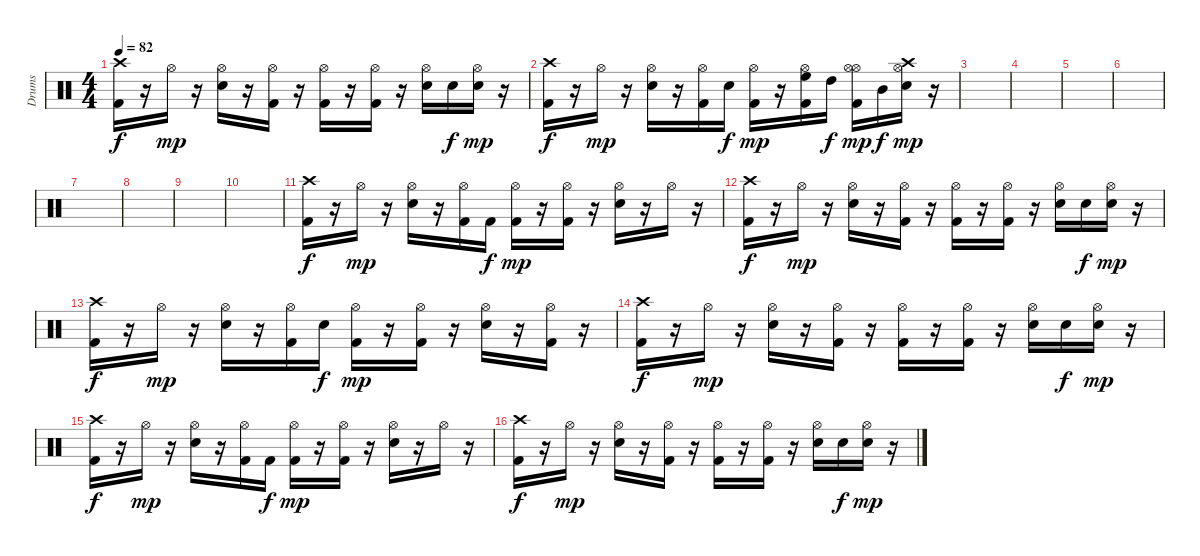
\track ("Drums" "Drums") {instrument percussion}
\staff {score}
\articulation defaults
\ts (4 4)
\tempo 82
\clef neutral
\ks c
("Kick (hit) 2" "Crash high (hit)").16{dy f} r.16 "Hi-Hat (open)".16{dy mp} r.16 ("Snare (hit) 2" "Hi-Hat (open)").16 r.16 ("Kick (hit) 2" "Hi-Hat (open)").16 r.16 ("Kick (hit) 2" "Hi-Hat (open)").16 r.16 ("Kick (hit) 2" "Hi-Hat (open)").16 r.16 ("Snare (hit) 2" "Hi-Hat (open)").16 "Snare (hit) 2".16{dy f} ("Snare (hit) 2" "Hi-Hat (open)").16{dy mp} r.16 |
("Kick (hit) 2" "Crash high (hit)").16{dy f} r.16 "Hi-Hat (open)".16{dy mp} r.16 ("Snare (hit) 2" "Hi-Hat (open)").16 r.16 ("Kick (hit) 2" "Hi-Hat (open)").16 "Snare (hit) 2".16{dy f} ("Kick (hit) 2" "Hi-Hat (open)").16{dy mp} r.16 ("Kick (hit) 2" "High Floor Tom (hit)" "Hi-Hat (open)").16 "High Tom (hit)".16{dy f} ("Kick (hit) 2" "Hi-Hat (open)" "Hi-Hat (open)").16{dy mp} "Mid Tom (hit)".16{dy f} ("Snare (hit) 2" "Crash high (hit)" "Hi-Hat (open)").16{dy mp} r.16 |
|
|
|
|
|
|
|
|
("Kick (hit) 2" "Crash high (hit)").16{dy f} r.16 "Hi-Hat (open)".16{dy mp} r.16 ("Snare (hit) 2" "Hi-Hat (open)").16 r.16 ("Kick (hit) 2" "Hi-Hat (open)").16 "Kick (hit) 2".16{dy f} ("Kick (hit) 2" "Hi-Hat (open)").16{dy mp} r.16 ("Kick (hit) 2" "Hi-Hat (open)").16 r.16 ("Snare (hit) 2" "Hi-Hat (open)").16 r.16 "Hi-Hat (open)".16 r.16 |
("Kick (hit) 2" "Crash high (hit)").16{dy f} r.16 "Hi-Hat (open)".16{dy mp} r.16 ("Snare (hit) 2" "Hi-Hat (open)").16 r.16 ("Kick (hit) 2" "Hi-Hat (open)").16 r.16 ("Kick (hit) 2" "Hi-Hat (open)").16 r.16 ("Kick (hit) 2" "Hi-Hat (open)").16 r.16 ("Snare (hit) 2" "Hi-Hat (open)").16 "Snare (hit) 2".16{dy f} ("Snare (hit) 2" "Hi-Hat (open)").16{dy mp} r.16 |
("Kick (hit) 2" "Crash high (hit)").16{dy f} r.16 "Hi-Hat (open)".16{dy mp} r.16 ("Snare (hit) 2" "Hi-Hat (open)").16 r.16 ("Kick (hit) 2" "Hi-Hat (open)").16 "Snare (hit) 2".16{dy f} ("Kick (hit) 2" "Hi-Hat (open)").16{dy mp} r.16 ("Kick (hit) 2" "Hi-Hat (open)").16 r.16 ("Snare (hit) 2" "Hi-Hat (open)").16 r.16 ("Kick (hit) 2" "Hi-Hat (open)").16 r.16 |
("Kick (hit) 2" "Crash high (hit)").16{dy f} r.16 "Hi-Hat (open)".16{dy mp} r.16 ("Snare (hit) 2" "Hi-Hat (open)").16 r.16 ("Kick (hit) 2" "Hi-Hat (open)").16 r.16 ("Kick (hit) 2" "Hi-Hat (open)").16 r.16 ("Kick (hit) 2" "Hi-Hat (open)").16 r.16 ("Snare (hit) 2" "Hi-Hat (open)").16 "Snare (hit) 2".16{dy f} ("Snare (hit) 2" "Hi-Hat (open)").16{dy mp} r.16 |
("Kick (hit) 2" "Crash high (hit)").16{dy f} r.16 "Hi-Hat (open)".16{dy mp} r.16 ("Snare (hit) 2" "Hi-Hat (open)").16 r.16 ("Kick (hit) 2" "Hi-Hat (open)").16 "Kick (hit) 2".16{dy f} ("Kick (hit) 2" "Hi-Hat (open)").16{dy mp} r.16 ("Kick (hit) 2" "Hi-Hat (open)").16 r.16 ("Snare (hit) 2" "Hi-Hat (open)").16 r.16 "Hi-Hat (open)".16 r.16 |
("Kick (hit) 2" "Crash high (hit)").16{dy f} r.16 "Hi-Hat (open)".16{dy mp} r.16 ("Snare (hit) 2" "Hi-Hat (open)").16 r.16 ("Kick (hit) 2" "Hi-Hat (open)").16 r.16 ("Kick (hit) 2" "Hi-Hat (open)").16 r.16 ("Kick (hit) 2" "Hi-Hat (open)").16 r.16 ("Snare (hit) 2" "Hi-Hat (open)").16 "Snare (hit) 2".16{dy f} ("Snare (hit) 2" "Hi-Hat (open)").16{dy mp} r.16
